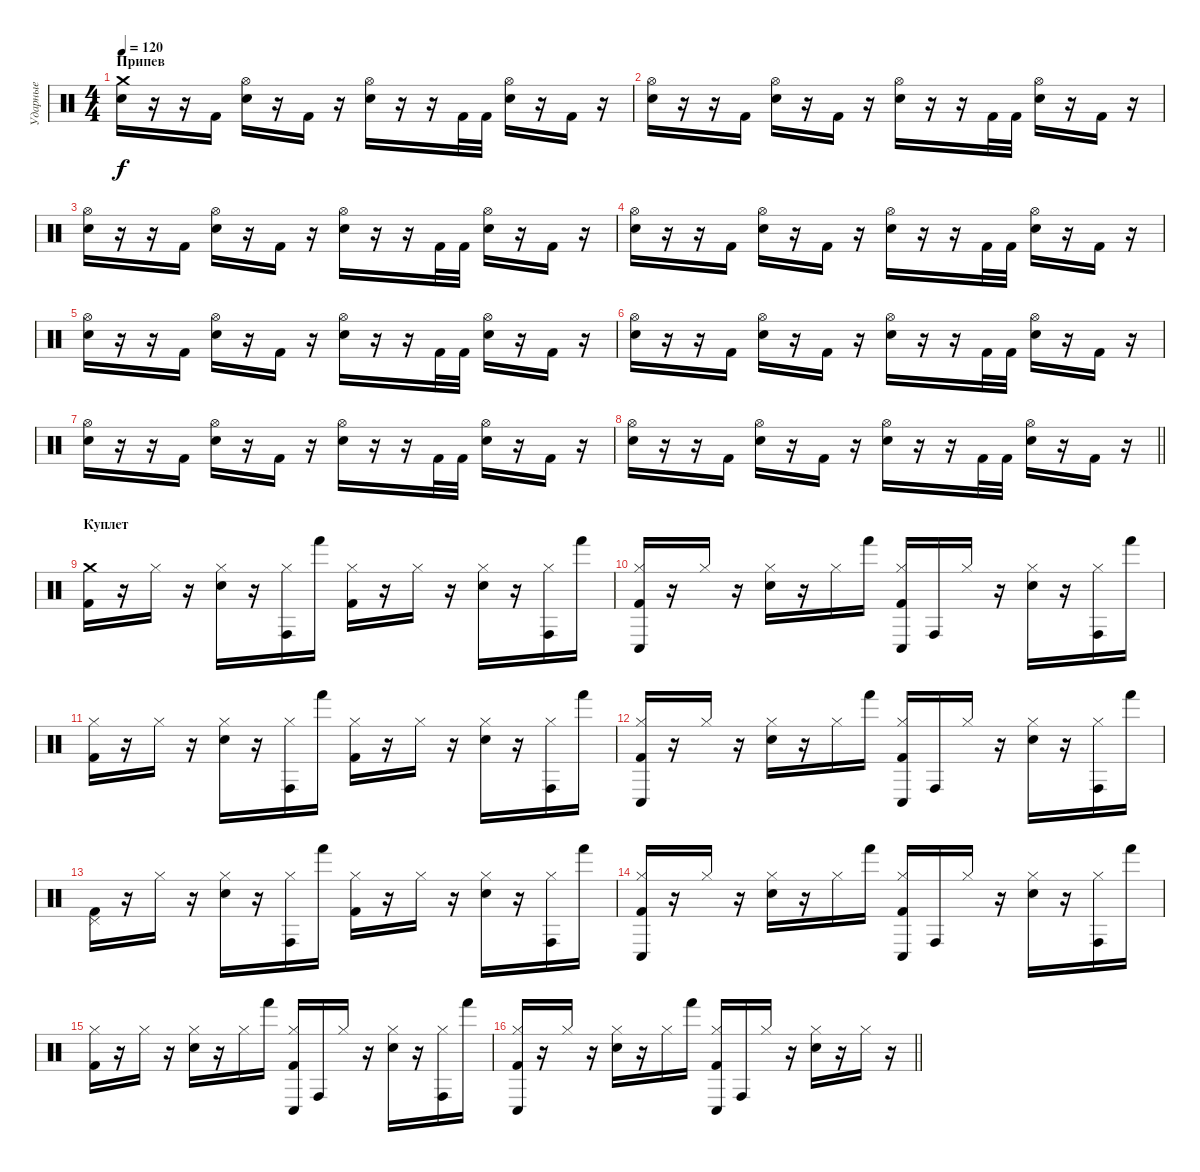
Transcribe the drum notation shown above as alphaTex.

\track ("Ударные" "Ударные") {instrument percussion}
\staff {score}
\articulation defaults
\ts (4 4)
\section ("" "Припев")
\tempo 120
\clef neutral
\ks c
("Crash medium (hit)" "Electric Snare (hit)").16{dy f} r.16 r.16 "Kick (hit) 2".16 ("Hi-Hat (open)" "Electric Snare (hit)").16 r.16 "Kick (hit) 2".16 r.16 ("Hi-Hat (open)" "Electric Snare (hit)").16 r.16 r.16 "Kick (hit) 2".32 "Kick (hit) 2".32 ("Hi-Hat (open)" "Electric Snare (hit)").16 r.16 "Kick (hit) 2".16 r.16 |
("Hi-Hat (open)" "Electric Snare (hit)").16 r.16 r.16 "Kick (hit) 2".16 ("Hi-Hat (open)" "Electric Snare (hit)").16 r.16 "Kick (hit) 2".16 r.16 ("Hi-Hat (open)" "Electric Snare (hit)").16 r.16 r.16 "Kick (hit) 2".32 "Kick (hit) 2".32 ("Hi-Hat (open)" "Electric Snare (hit)").16 r.16 "Kick (hit) 2".16 r.16 |
("Hi-Hat (open)" "Electric Snare (hit)").16 r.16 r.16 "Kick (hit) 2".16 ("Hi-Hat (open)" "Electric Snare (hit)").16 r.16 "Kick (hit) 2".16 r.16 ("Hi-Hat (open)" "Electric Snare (hit)").16 r.16 r.16 "Kick (hit) 2".32 "Kick (hit) 2".32 ("Hi-Hat (open)" "Electric Snare (hit)").16 r.16 "Kick (hit) 2".16 r.16 |
("Hi-Hat (open)" "Electric Snare (hit)").16 r.16 r.16 "Kick (hit) 2".16 ("Hi-Hat (open)" "Electric Snare (hit)").16 r.16 "Kick (hit) 2".16 r.16 ("Hi-Hat (open)" "Electric Snare (hit)").16 r.16 r.16 "Kick (hit) 2".32 "Kick (hit) 2".32 ("Hi-Hat (open)" "Electric Snare (hit)").16 r.16 "Kick (hit) 2".16 r.16 |
("Hi-Hat (open)" "Electric Snare (hit)").16 r.16 r.16 "Kick (hit) 2".16 ("Hi-Hat (open)" "Electric Snare (hit)").16 r.16 "Kick (hit) 2".16 r.16 ("Hi-Hat (open)" "Electric Snare (hit)").16 r.16 r.16 "Kick (hit) 2".32 "Kick (hit) 2".32 ("Hi-Hat (open)" "Electric Snare (hit)").16 r.16 "Kick (hit) 2".16 r.16 |
("Hi-Hat (open)" "Electric Snare (hit)").16 r.16 r.16 "Kick (hit) 2".16 ("Hi-Hat (open)" "Electric Snare (hit)").16 r.16 "Kick (hit) 2".16 r.16 ("Hi-Hat (open)" "Electric Snare (hit)").16 r.16 r.16 "Kick (hit) 2".32 "Kick (hit) 2".32 ("Hi-Hat (open)" "Electric Snare (hit)").16 r.16 "Kick (hit) 2".16 r.16 |
("Hi-Hat (open)" "Electric Snare (hit)").16 r.16 r.16 "Kick (hit) 2".16 ("Hi-Hat (open)" "Electric Snare (hit)").16 r.16 "Kick (hit) 2".16 r.16 ("Hi-Hat (open)" "Electric Snare (hit)").16 r.16 r.16 "Kick (hit) 2".32 "Kick (hit) 2".32 ("Hi-Hat (open)" "Electric Snare (hit)").16 r.16 "Kick (hit) 2".16 r.16 |
\barLineRight lightlight
("Hi-Hat (open)" "Electric Snare (hit)").16 r.16 r.16 "Kick (hit) 2".16 ("Hi-Hat (open)" "Electric Snare (hit)").16 r.16 "Kick (hit) 2".16 r.16 ("Hi-Hat (open)" "Electric Snare (hit)").16 r.16 r.16 "Kick (hit) 2".32 "Kick (hit) 2".32 ("Hi-Hat (open)" "Electric Snare (hit)").16 r.16 "Kick (hit) 2".16 r.16 |
\section ("" "Куплет")
("Crash medium (hit)" "Kick (hit) 2").16{volume 11} r.16 "Hi-Hat (closed)".16 r.16 ("Hi-Hat (closed)" "Electric Snare (hit)").16 r.16 ("Hi-Hat (closed)" "Conga high (hit)").16 "Hand (hit)".16 ("Hi-Hat (closed)" "Kick (hit) 2").16 r.16 "Hi-Hat (closed)".16 r.16 ("Hi-Hat (closed)" "Electric Snare (hit)").16 r.16 ("Hi-Hat (closed)" "Conga high (hit)").16 "Hand (hit)".16 |
("Hi-Hat (closed)" "Conga low (hit)" "Kick (hit) 2").16 r.16 "Hi-Hat (closed)".16 r.16 ("Hi-Hat (closed)" "Electric Snare (hit)").16 r.16 "Hi-Hat (closed)".16 "Hand (hit)".16 ("Hi-Hat (closed)" "Conga low (hit)" "Kick (hit) 2").16 "Conga high (hit)".16 "Hi-Hat (closed)".16 r.16 ("Hi-Hat (closed)" "Electric Snare (hit)").16 r.16 ("Hi-Hat (closed)" "Conga high (hit)").16 "Hand (hit)".16 |
("Hi-Hat (closed)" "Kick (hit) 2").16 r.16 "Hi-Hat (closed)".16 r.16 ("Hi-Hat (closed)" "Electric Snare (hit)").16 r.16 ("Hi-Hat (closed)" "Conga high (hit)").16 "Hand (hit)".16 ("Hi-Hat (closed)" "Kick (hit) 2").16 r.16 "Hi-Hat (closed)".16 r.16 ("Hi-Hat (closed)" "Electric Snare (hit)").16 r.16 ("Hi-Hat (closed)" "Conga high (hit)").16 "Hand (hit)".16 |
("Hi-Hat (closed)" "Conga low (hit)" "Kick (hit) 2").16 r.16 "Hi-Hat (closed)".16 r.16 ("Hi-Hat (closed)" "Electric Snare (hit)").16 r.16 "Hi-Hat (closed)".16 "Hand (hit)".16 ("Hi-Hat (closed)" "Conga low (hit)" "Kick (hit) 2").16 "Conga high (hit)".16 "Hi-Hat (closed)".16 r.16 ("Hi-Hat (closed)" "Electric Snare (hit)").16 r.16 ("Hi-Hat (closed)" "Conga high (hit)").16 "Hand (hit)".16 |
("Pedal Hi-Hat (hit)" "Kick (hit) 2").16 r.16 "Hi-Hat (closed)".16 r.16 ("Hi-Hat (closed)" "Electric Snare (hit)").16 r.16 ("Hi-Hat (closed)" "Conga high (hit)").16 "Hand (hit)".16 ("Hi-Hat (closed)" "Kick (hit) 2").16 r.16 "Hi-Hat (closed)".16 r.16 ("Hi-Hat (closed)" "Electric Snare (hit)").16 r.16 ("Hi-Hat (closed)" "Conga high (hit)").16 "Hand (hit)".16 |
("Hi-Hat (closed)" "Conga low (hit)" "Kick (hit) 2").16 r.16 "Hi-Hat (closed)".16 r.16 ("Hi-Hat (closed)" "Electric Snare (hit)").16 r.16 "Hi-Hat (closed)".16 "Hand (hit)".16 ("Hi-Hat (closed)" "Conga low (hit)" "Kick (hit) 2").16 "Conga high (hit)".16 "Hi-Hat (closed)".16 r.16 ("Hi-Hat (closed)" "Electric Snare (hit)").16 r.16 ("Hi-Hat (closed)" "Conga high (hit)").16 "Hand (hit)".16 |
("Hi-Hat (closed)" "Kick (hit) 2").16 r.16 "Hi-Hat (closed)".16 r.16 ("Hi-Hat (closed)" "Electric Snare (hit)").16 r.16 "Hi-Hat (closed)".16 "Hand (hit)".16 ("Hi-Hat (closed)" "Conga low (hit)" "Kick (hit) 2").16 "Conga high (hit)".16 "Hi-Hat (closed)".16 r.16 ("Hi-Hat (closed)" "Electric Snare (hit)").16 r.16 ("Hi-Hat (closed)" "Conga high (hit)").16 "Hand (hit)".16 |
\barLineRight lightlight
("Hi-Hat (closed)" "Conga low (hit)" "Kick (hit) 2").16 r.16 "Hi-Hat (closed)".16 r.16 ("Hi-Hat (closed)" "Electric Snare (hit)").16 r.16 "Hi-Hat (closed)".16 "Hand (hit)".16 ("Hi-Hat (closed)" "Conga low (hit)" "Kick (hit) 2").16 "Conga high (hit)".16 "Hi-Hat (closed)".16 r.16 ("Hi-Hat (closed)" "Electric Snare (hit)").16 r.16 "Hi-Hat (closed)".16 r.16
